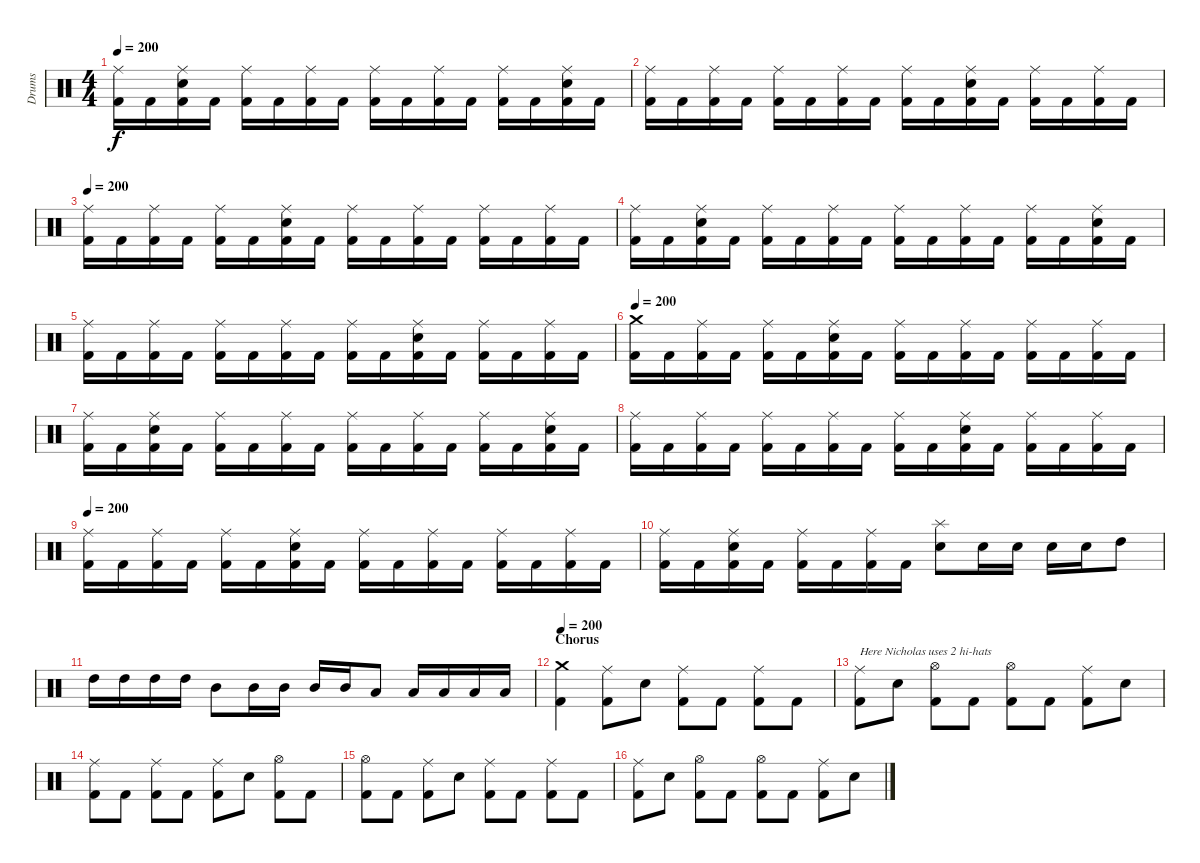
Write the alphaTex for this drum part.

\track ("Drums" "Drums") {instrument percussion}
\staff {score}
\articulation defaults
\ts (4 4)
\tempo 200
\clef neutral
\ks c
("Ride (middle)" "Kick (hit) 2").16{dy f} "Kick (hit) 2".16 ("Ride (middle)" "Electric Snare (hit)" "Kick (hit) 2").16 "Kick (hit) 2".16 ("Ride (middle)" "Kick (hit) 2").16 "Kick (hit) 2".16 ("Ride (middle)" "Kick (hit) 2").16 "Kick (hit) 2".16 ("Ride (middle)" "Kick (hit) 2").16 "Kick (hit) 2".16 ("Ride (middle)" "Kick (hit) 2").16 "Kick (hit) 2".16 ("Ride (middle)" "Kick (hit) 2").16 "Kick (hit) 2".16 ("Ride (middle)" "Electric Snare (hit)" "Kick (hit) 2").16 "Kick (hit) 2".16 |
("Ride (middle)" "Kick (hit) 2").16 "Kick (hit) 2".16 ("Ride (middle)" "Kick (hit) 2").16 "Kick (hit) 2".16 ("Ride (middle)" "Kick (hit) 2").16 "Kick (hit) 2".16 ("Ride (middle)" "Kick (hit) 2").16 "Kick (hit) 2".16 ("Ride (middle)" "Kick (hit) 2").16 "Kick (hit) 2".16 ("Ride (middle)" "Electric Snare (hit)" "Kick (hit) 2").16 "Kick (hit) 2".16 ("Ride (middle)" "Kick (hit) 2").16 "Kick (hit) 2".16 ("Ride (middle)" "Kick (hit) 2").16 "Kick (hit) 2".16 |
\tempo 200
("Ride (middle)" "Kick (hit) 2").16 "Kick (hit) 2".16 ("Ride (middle)" "Kick (hit) 2").16 "Kick (hit) 2".16 ("Ride (middle)" "Kick (hit) 2").16 "Kick (hit) 2".16 ("Ride (middle)" "Electric Snare (hit)" "Kick (hit) 2").16 "Kick (hit) 2".16 ("Ride (middle)" "Kick (hit) 2").16 "Kick (hit) 2".16 ("Ride (middle)" "Kick (hit) 2").16 "Kick (hit) 2".16 ("Ride (middle)" "Kick (hit) 2").16 "Kick (hit) 2".16 ("Ride (middle)" "Kick (hit) 2").16 "Kick (hit) 2".16 |
("Ride (middle)" "Kick (hit) 2").16 "Kick (hit) 2".16 ("Ride (middle)" "Electric Snare (hit)" "Kick (hit) 2").16 "Kick (hit) 2".16 ("Ride (middle)" "Kick (hit) 2").16 "Kick (hit) 2".16 ("Ride (middle)" "Kick (hit) 2").16 "Kick (hit) 2".16 ("Ride (middle)" "Kick (hit) 2").16 "Kick (hit) 2".16 ("Ride (middle)" "Kick (hit) 2").16 "Kick (hit) 2".16 ("Ride (middle)" "Kick (hit) 2").16 "Kick (hit) 2".16 ("Ride (middle)" "Electric Snare (hit)" "Kick (hit) 2").16 "Kick (hit) 2".16 |
("Ride (middle)" "Kick (hit) 2").16 "Kick (hit) 2".16 ("Ride (middle)" "Kick (hit) 2").16 "Kick (hit) 2".16 ("Ride (middle)" "Kick (hit) 2").16 "Kick (hit) 2".16 ("Ride (middle)" "Kick (hit) 2").16 "Kick (hit) 2".16 ("Ride (middle)" "Kick (hit) 2").16 "Kick (hit) 2".16 ("Ride (middle)" "Electric Snare (hit)" "Kick (hit) 2").16 "Kick (hit) 2".16 ("Ride (middle)" "Kick (hit) 2").16 "Kick (hit) 2".16 ("Ride (middle)" "Kick (hit) 2").16 "Kick (hit) 2".16 |
\tempo 200
("Crash medium (hit)" "Kick (hit) 2").16 "Kick (hit) 2".16 ("Ride (middle)" "Kick (hit) 2").16 "Kick (hit) 2".16 ("Ride (middle)" "Kick (hit) 2").16 "Kick (hit) 2".16 ("Ride (middle)" "Electric Snare (hit)" "Kick (hit) 2").16 "Kick (hit) 2".16 ("Ride (middle)" "Kick (hit) 2").16 "Kick (hit) 2".16 ("Ride (middle)" "Kick (hit) 2").16 "Kick (hit) 2".16 ("Ride (middle)" "Kick (hit) 2").16 "Kick (hit) 2".16 ("Ride (middle)" "Kick (hit) 2").16 "Kick (hit) 2".16 |
("Ride (middle)" "Kick (hit) 2").16 "Kick (hit) 2".16 ("Ride (middle)" "Electric Snare (hit)" "Kick (hit) 2").16 "Kick (hit) 2".16 ("Ride (middle)" "Kick (hit) 2").16 "Kick (hit) 2".16 ("Ride (middle)" "Kick (hit) 2").16 "Kick (hit) 2".16 ("Ride (middle)" "Kick (hit) 2").16 "Kick (hit) 2".16 ("Ride (middle)" "Kick (hit) 2").16 "Kick (hit) 2".16 ("Ride (middle)" "Kick (hit) 2").16 "Kick (hit) 2".16 ("Ride (middle)" "Electric Snare (hit)" "Kick (hit) 2").16 "Kick (hit) 2".16 |
("Ride (middle)" "Kick (hit) 2").16 "Kick (hit) 2".16 ("Ride (middle)" "Kick (hit) 2").16 "Kick (hit) 2".16 ("Ride (middle)" "Kick (hit) 2").16 "Kick (hit) 2".16 ("Ride (middle)" "Kick (hit) 2").16 "Kick (hit) 2".16 ("Ride (middle)" "Kick (hit) 2").16 "Kick (hit) 2".16 ("Ride (middle)" "Electric Snare (hit)" "Kick (hit) 2").16 "Kick (hit) 2".16 ("Ride (middle)" "Kick (hit) 2").16 "Kick (hit) 2".16 ("Ride (middle)" "Kick (hit) 2").16 "Kick (hit) 2".16 |
\tempo 200
("Ride (middle)" "Kick (hit) 2").16 "Kick (hit) 2".16 ("Ride (middle)" "Kick (hit) 2").16 "Kick (hit) 2".16 ("Ride (middle)" "Kick (hit) 2").16 "Kick (hit) 2".16 ("Ride (middle)" "Electric Snare (hit)" "Kick (hit) 2").16 "Kick (hit) 2".16 ("Ride (middle)" "Kick (hit) 2").16 "Kick (hit) 2".16 ("Ride (middle)" "Kick (hit) 2").16 "Kick (hit) 2".16 ("Ride (middle)" "Kick (hit) 2").16 "Kick (hit) 2".16 ("Ride (middle)" "Kick (hit) 2").16 "Kick (hit) 2".16 |
("Ride (middle)" "Kick (hit) 2").16 "Kick (hit) 2".16 ("Ride (middle)" "Electric Snare (hit)" "Kick (hit) 2").16 "Kick (hit) 2".16 ("Ride (middle)" "Kick (hit) 2").16 "Kick (hit) 2".16 ("Ride (middle)" "Kick (hit) 2").16 "Kick (hit) 2".16 ("Splash (hit)" "Electric Snare (hit)").8 "Electric Snare (hit)".16 "Electric Snare (hit)".16 "Electric Snare (hit)".16 "Electric Snare (hit)".16 "High Tom (hit)".8 |
"High Tom (hit)".16 "High Tom (hit)".16 "High Tom (hit)".16 "High Tom (hit)".16 "Mid Tom (hit)".8 "Mid Tom (hit)".16 "Mid Tom (hit)".16 "Mid Tom (hit)".16 "Mid Tom (hit)".16 "Low Tom (hit)".8 "Low Tom (hit)".16 "Low Tom (hit)".16 "Low Tom (hit)".16 "Low Tom (hit)".16 |
\section ("" "Chorus")
\tempo 200
("Crash medium (hit)" "Kick (hit) 2").4 ("Ride (middle)" "Kick (hit) 2").8 "Electric Snare (hit)".8 ("Ride (middle)" "Kick (hit) 2").8 "Kick (hit) 2".8 ("Ride (middle)" "Kick (hit) 2").8 "Kick (hit) 2".8 |
("Ride (middle)" "Kick (hit) 2").8{txt "Here Nicholas uses 2 hi-hats"} "Electric Snare (hit)".8 ("Hi-Hat (open)" "Kick (hit) 2").8 "Kick (hit) 2".8 ("Hi-Hat (open)" "Kick (hit) 2").8 "Kick (hit) 2".8 ("Ride (middle)" "Kick (hit) 2").8 "Electric Snare (hit)".8 |
("Ride (middle)" "Kick (hit) 2").8 "Kick (hit) 2".8 ("Ride (middle)" "Kick (hit) 2").8 "Kick (hit) 2".8 ("Ride (middle)" "Kick (hit) 2").8 "Electric Snare (hit)".8 ("Hi-Hat (open)" "Kick (hit) 2").8 "Kick (hit) 2".8 |
("Hi-Hat (open)" "Kick (hit) 2").8 "Kick (hit) 2".8 ("Ride (middle)" "Kick (hit) 2").8 "Electric Snare (hit)".8 ("Ride (middle)" "Kick (hit) 2").8 "Kick (hit) 2".8 ("Ride (middle)" "Kick (hit) 2").8 "Kick (hit) 2".8 |
("Ride (middle)" "Kick (hit) 2").8 "Electric Snare (hit)".8 ("Hi-Hat (open)" "Kick (hit) 2").8 "Kick (hit) 2".8 ("Hi-Hat (open)" "Kick (hit) 2").8 "Kick (hit) 2".8 ("Ride (middle)" "Kick (hit) 2").8 "Electric Snare (hit)".8
